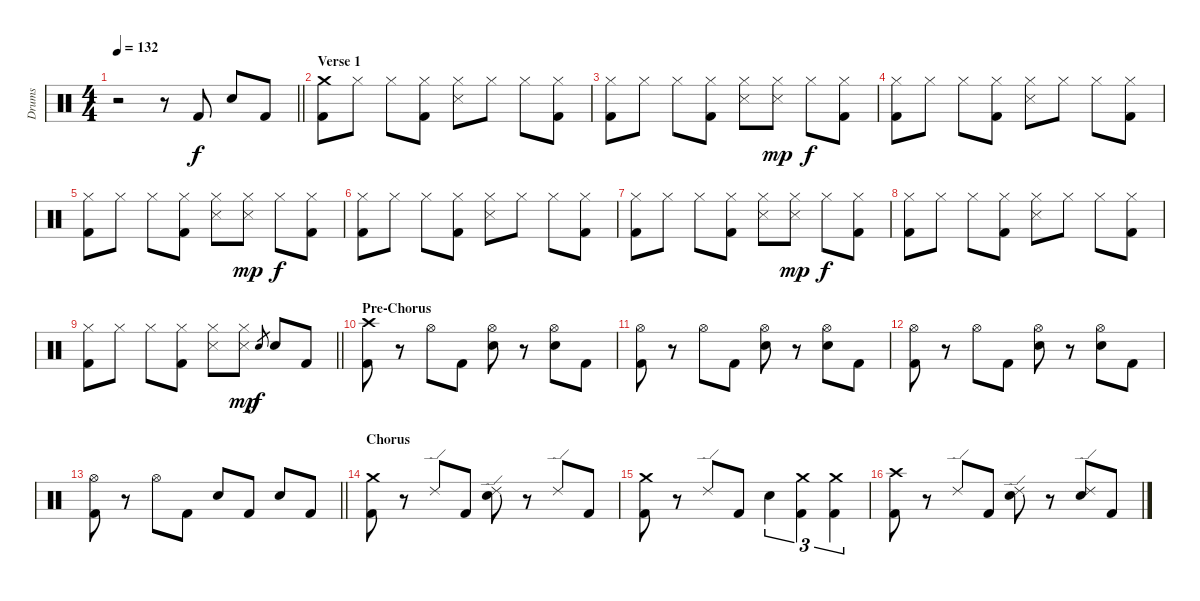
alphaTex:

\track ("Drums" "Drums") {instrument percussion}
\staff {score}
\articulation defaults
\ts (4 4)
\tempo 132
\clef neutral
\barLineRight lightlight
\ks c
r.2{dy f} r.8 "Kick (hit) 2".8 "Snare (hit) 2".8 "Kick (hit) 2".8 |
\section ("" "Verse 1")
("Crash medium (hit)" "Kick (hit) 2").8 "Hi-Hat (closed)".8 "Hi-Hat (closed)".8 ("Hi-Hat (closed)" "Kick (hit) 2").8 ("Hi-Hat (closed)" "Snare (side stick) 3").8 "Hi-Hat (closed)".8 "Hi-Hat (closed)".8 ("Hi-Hat (closed)" "Kick (hit) 2").8 |
("Hi-Hat (closed)" "Kick (hit) 2").8 "Hi-Hat (closed)".8 "Hi-Hat (closed)".8 ("Hi-Hat (closed)" "Kick (hit) 2").8 ("Hi-Hat (closed)" "Snare (side stick) 3").8 ("Hi-Hat (closed)" "Snare (side stick) 3").8{dy mp} "Hi-Hat (closed)".8{dy f} ("Hi-Hat (closed)" "Kick (hit) 2").8 |
("Hi-Hat (closed)" "Kick (hit) 2").8 "Hi-Hat (closed)".8 "Hi-Hat (closed)".8 ("Hi-Hat (closed)" "Kick (hit) 2").8 ("Hi-Hat (closed)" "Snare (side stick) 3").8 "Hi-Hat (closed)".8 "Hi-Hat (closed)".8 ("Hi-Hat (closed)" "Kick (hit) 2").8 |
("Hi-Hat (closed)" "Kick (hit) 2").8 "Hi-Hat (closed)".8 "Hi-Hat (closed)".8 ("Hi-Hat (closed)" "Kick (hit) 2").8 ("Hi-Hat (closed)" "Snare (side stick) 3").8 ("Hi-Hat (closed)" "Snare (side stick) 3").8{dy mp} "Hi-Hat (closed)".8{dy f} ("Hi-Hat (closed)" "Kick (hit) 2").8 |
("Hi-Hat (closed)" "Kick (hit) 2").8 "Hi-Hat (closed)".8 "Hi-Hat (closed)".8 ("Hi-Hat (closed)" "Kick (hit) 2").8 ("Hi-Hat (closed)" "Snare (side stick) 3").8 "Hi-Hat (closed)".8 "Hi-Hat (closed)".8 ("Hi-Hat (closed)" "Kick (hit) 2").8 |
("Hi-Hat (closed)" "Kick (hit) 2").8 "Hi-Hat (closed)".8 "Hi-Hat (closed)".8 ("Hi-Hat (closed)" "Kick (hit) 2").8 ("Hi-Hat (closed)" "Snare (side stick) 3").8 ("Hi-Hat (closed)" "Snare (side stick) 3").8{dy mp} "Hi-Hat (closed)".8{dy f} ("Hi-Hat (closed)" "Kick (hit) 2").8 |
("Hi-Hat (closed)" "Kick (hit) 2").8 "Hi-Hat (closed)".8 "Hi-Hat (closed)".8 ("Hi-Hat (closed)" "Kick (hit) 2").8 ("Hi-Hat (closed)" "Snare (side stick) 3").8 "Hi-Hat (closed)".8 "Hi-Hat (closed)".8 ("Hi-Hat (closed)" "Kick (hit) 2").8 |
\barLineRight lightlight
("Hi-Hat (closed)" "Kick (hit) 2").8 "Hi-Hat (closed)".8 "Hi-Hat (closed)".8 ("Hi-Hat (closed)" "Kick (hit) 2").8 ("Hi-Hat (closed)" "Snare (side stick) 3").8 ("Hi-Hat (closed)" "Snare (side stick) 3").8{dy mp} "Snare (hit) 2".8{gr dy f} "Snare (hit) 2".8 "Kick (hit) 2".8 |
\section ("" "Pre-Chorus")
("Crash high (hit)" "Kick (hit) 2").8 r.8 "Hi-Hat (open)".8 "Kick (hit) 2".8 ("Hi-Hat (open)" "Snare (hit) 2").8 r.8 ("Hi-Hat (open)" "Snare (hit) 2").8 "Kick (hit) 2".8 |
("Hi-Hat (open)" "Kick (hit) 2").8 r.8 "Hi-Hat (open)".8 "Kick (hit) 2".8 ("Hi-Hat (open)" "Snare (hit) 2").8 r.8 ("Hi-Hat (open)" "Snare (hit) 2").8 "Kick (hit) 2".8 |
("Hi-Hat (open)" "Kick (hit) 2").8 r.8 "Hi-Hat (open)".8 "Kick (hit) 2".8 ("Hi-Hat (open)" "Snare (hit) 2").8 r.8 ("Hi-Hat (open)" "Snare (hit) 2").8 "Kick (hit) 2".8 |
\barLineRight lightlight
("Hi-Hat (open)" "Kick (hit) 2").8 r.8 "Hi-Hat (open)".8 "Kick (hit) 2".8 "Snare (hit) 2".8 "Kick (hit) 2".8 "Snare (hit) 2".8 "Kick (hit) 2".8 |
\section ("" "Chorus")
("Crash medium (hit)" "Kick (hit) 2").8 r.8 "Ride (edge) 2".8 "Kick (hit) 2".8 ("Ride (edge) 2" "Snare (hit) 2").8 r.8 "Ride (edge) 2".8 "Kick (hit) 2".8 |
("Crash medium (hit)" "Kick (hit) 2").8 r.8 "Ride (edge) 2".8 "Kick (hit) 2".8 "Snare (hit) 2".4{tu (3 2)} ("Crash medium (hit)" "Kick (hit) 2").4{tu (3 2)} ("Crash medium (hit)" "Kick (hit) 2").4{tu (3 2)} |
("Crash high (hit)" "Kick (hit) 2").8 r.8 "Ride (edge) 2".8 "Kick (hit) 2".8 ("Ride (edge) 2" "Snare (hit) 2").8 r.8 ("Ride (edge) 2" "Snare (hit) 2").8 "Kick (hit) 2".8
